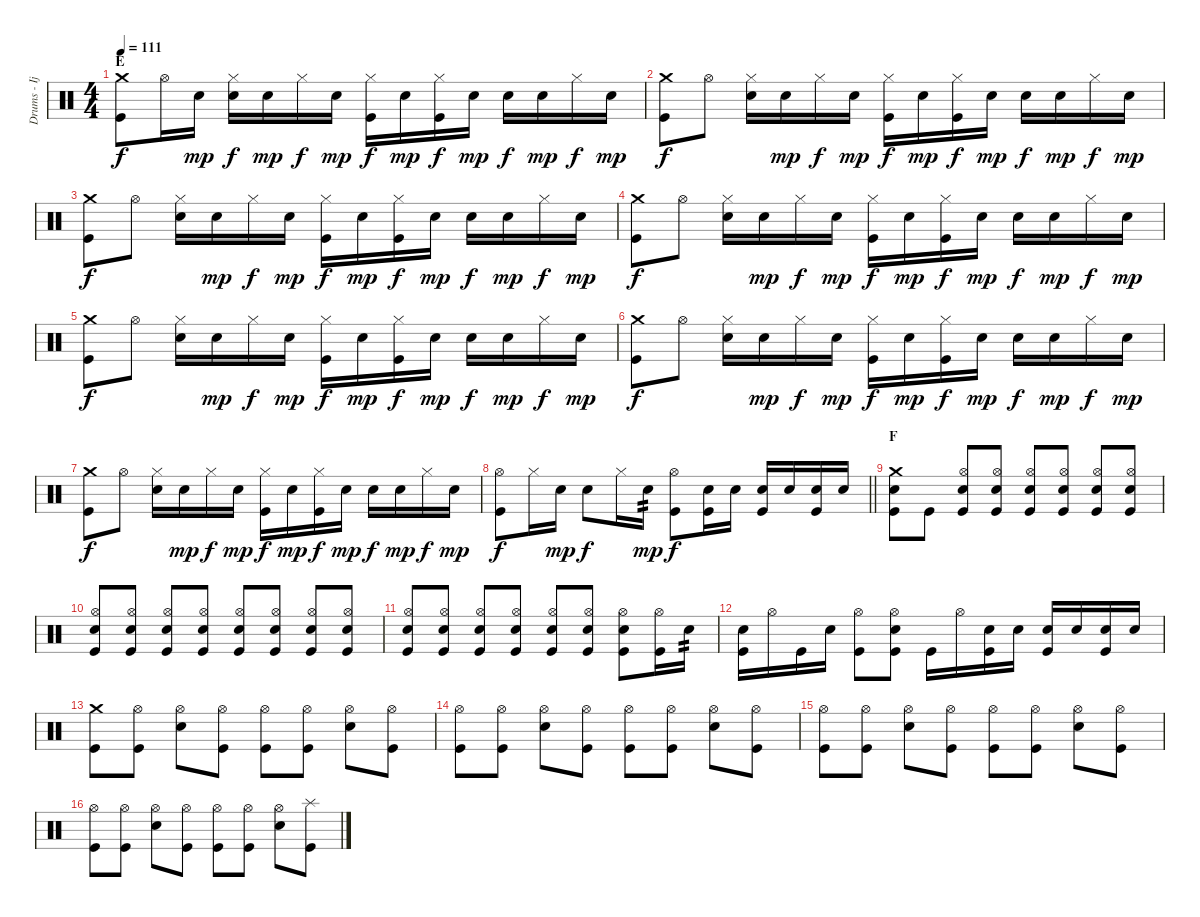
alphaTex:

\track ("Drums - Ijichi" "Drums - Ij") {instrument percussion}
\staff {score}
\articulation defaults
\ts (4 4)
\section ("" "E")
\tempo 111
\clef neutral
\ks c
("Crash medium (hit)" "Kick (hit)").8{dy f} "Hi-Hat (open)".16 "Electric Snare (hit)".16{dy mp} ("Hi-Hat (closed)" "Electric Snare (hit)").16{dy f} "Electric Snare (hit)".16{dy mp} "Hi-Hat (closed)".16{dy f} "Electric Snare (hit)".16{dy mp} ("Hi-Hat (closed)" "Kick (hit)").16{dy f} "Electric Snare (hit)".16{dy mp} ("Hi-Hat (closed)" "Kick (hit)").16{dy f} "Electric Snare (hit)".16{dy mp} "Electric Snare (hit)".16{dy f} "Electric Snare (hit)".16{dy mp} "Hi-Hat (closed)".16{dy f} "Electric Snare (hit)".16{dy mp} |
("Crash medium (hit)" "Kick (hit)").8{dy f} "Hi-Hat (open)".8 ("Hi-Hat (closed)" "Electric Snare (hit)").16 "Electric Snare (hit)".16{dy mp} "Hi-Hat (closed)".16{dy f} "Electric Snare (hit)".16{dy mp} ("Hi-Hat (closed)" "Kick (hit)").16{dy f} "Electric Snare (hit)".16{dy mp} ("Hi-Hat (closed)" "Kick (hit)").16{dy f} "Electric Snare (hit)".16{dy mp} "Electric Snare (hit)".16{dy f} "Electric Snare (hit)".16{dy mp} "Hi-Hat (closed)".16{dy f} "Electric Snare (hit)".16{dy mp} |
("Crash medium (hit)" "Kick (hit)").8{dy f} "Hi-Hat (open)".8 ("Hi-Hat (closed)" "Electric Snare (hit)").16 "Electric Snare (hit)".16{dy mp} "Hi-Hat (closed)".16{dy f} "Electric Snare (hit)".16{dy mp} ("Hi-Hat (closed)" "Kick (hit)").16{dy f} "Electric Snare (hit)".16{dy mp} ("Hi-Hat (closed)" "Kick (hit)").16{dy f} "Electric Snare (hit)".16{dy mp} "Electric Snare (hit)".16{dy f} "Electric Snare (hit)".16{dy mp} "Hi-Hat (closed)".16{dy f} "Electric Snare (hit)".16{dy mp} |
("Crash medium (hit)" "Kick (hit)").8{dy f} "Hi-Hat (open)".8 ("Hi-Hat (closed)" "Electric Snare (hit)").16 "Electric Snare (hit)".16{dy mp} "Hi-Hat (closed)".16{dy f} "Electric Snare (hit)".16{dy mp} ("Hi-Hat (closed)" "Kick (hit)").16{dy f} "Electric Snare (hit)".16{dy mp} ("Hi-Hat (closed)" "Kick (hit)").16{dy f} "Electric Snare (hit)".16{dy mp} "Electric Snare (hit)".16{dy f} "Electric Snare (hit)".16{dy mp} "Hi-Hat (closed)".16{dy f} "Electric Snare (hit)".16{dy mp} |
("Crash medium (hit)" "Kick (hit)").8{dy f} "Hi-Hat (open)".8 ("Hi-Hat (closed)" "Electric Snare (hit)").16 "Electric Snare (hit)".16{dy mp} "Hi-Hat (closed)".16{dy f} "Electric Snare (hit)".16{dy mp} ("Hi-Hat (closed)" "Kick (hit)").16{dy f} "Electric Snare (hit)".16{dy mp} ("Hi-Hat (closed)" "Kick (hit)").16{dy f} "Electric Snare (hit)".16{dy mp} "Electric Snare (hit)".16{dy f} "Electric Snare (hit)".16{dy mp} "Hi-Hat (closed)".16{dy f} "Electric Snare (hit)".16{dy mp} |
("Crash medium (hit)" "Kick (hit)").8{dy f} "Hi-Hat (open)".8 ("Hi-Hat (closed)" "Electric Snare (hit)").16 "Electric Snare (hit)".16{dy mp} "Hi-Hat (closed)".16{dy f} "Electric Snare (hit)".16{dy mp} ("Hi-Hat (closed)" "Kick (hit)").16{dy f} "Electric Snare (hit)".16{dy mp} ("Hi-Hat (closed)" "Kick (hit)").16{dy f} "Electric Snare (hit)".16{dy mp} "Electric Snare (hit)".16{dy f} "Electric Snare (hit)".16{dy mp} "Hi-Hat (closed)".16{dy f} "Electric Snare (hit)".16{dy mp} |
("Crash medium (hit)" "Kick (hit)").8{dy f} "Hi-Hat (open)".8 ("Hi-Hat (closed)" "Electric Snare (hit)").16 "Electric Snare (hit)".16{dy mp} "Hi-Hat (closed)".16{dy f} "Electric Snare (hit)".16{dy mp} ("Hi-Hat (closed)" "Kick (hit)").16{dy f} "Electric Snare (hit)".16{dy mp} ("Hi-Hat (closed)" "Kick (hit)").16{dy f} "Electric Snare (hit)".16{dy mp} "Electric Snare (hit)".16{dy f} "Electric Snare (hit)".16{dy mp} "Hi-Hat (closed)".16{dy f} "Electric Snare (hit)".16{dy mp} |
\barLineRight lightlight
("Hi-Hat (open)" "Kick (hit)").8{dy f} "Hi-Hat (closed)".16 "Electric Snare (hit)".16{dy mp} "Electric Snare (hit)".8{dy f} "Hi-Hat (closed)".16 "Electric Snare (hit)".16{tp 2 dy mp} ("Hi-Hat (open)" "Kick (hit)").8{dy f} ("Electric Snare (hit)" "Kick (hit)").16 "Electric Snare (hit)".16 ("Electric Snare (hit)" "Kick (hit)").16 "Electric Snare (hit)".16 ("Electric Snare (hit)" "Kick (hit)").16 "Electric Snare (hit)".16 |
\section ("" "F")
("Crash medium (hit)" "Electric Snare (hit)" "Kick (hit)").8 "Kick (hit)".8 ("Hi-Hat (open)" "Electric Snare (hit)" "Kick (hit)").8 ("Hi-Hat (open)" "Electric Snare (hit)" "Kick (hit)").8 ("Hi-Hat (open)" "Electric Snare (hit)" "Kick (hit)").8 ("Hi-Hat (open)" "Electric Snare (hit)" "Kick (hit)").8 ("Hi-Hat (open)" "Electric Snare (hit)" "Kick (hit)").8 ("Hi-Hat (open)" "Electric Snare (hit)" "Kick (hit)").8 |
("Hi-Hat (open)" "Electric Snare (hit)" "Kick (hit)").8 ("Hi-Hat (open)" "Electric Snare (hit)" "Kick (hit)").8 ("Hi-Hat (open)" "Electric Snare (hit)" "Kick (hit)").8 ("Hi-Hat (open)" "Electric Snare (hit)" "Kick (hit)").8 ("Hi-Hat (open)" "Electric Snare (hit)" "Kick (hit)").8 ("Hi-Hat (open)" "Electric Snare (hit)" "Kick (hit)").8 ("Hi-Hat (open)" "Electric Snare (hit)" "Kick (hit)").8 ("Hi-Hat (open)" "Electric Snare (hit)" "Kick (hit)").8 |
("Hi-Hat (open)" "Electric Snare (hit)" "Kick (hit)").8 ("Hi-Hat (open)" "Electric Snare (hit)" "Kick (hit)").8 ("Hi-Hat (open)" "Electric Snare (hit)" "Kick (hit)").8 ("Hi-Hat (open)" "Electric Snare (hit)" "Kick (hit)").8 ("Hi-Hat (open)" "Electric Snare (hit)" "Kick (hit)").8 ("Hi-Hat (open)" "Electric Snare (hit)" "Kick (hit)").8 ("Hi-Hat (open)" "Electric Snare (hit)" "Kick (hit)").8 ("Hi-Hat (open)" "Kick (hit)").16 "Electric Snare (hit)".16{tp 2} |
("Electric Snare (hit)" "Kick (hit)").16 "Hi-Hat (open)".16 "Kick (hit)".16 "Electric Snare (hit)".16 ("Hi-Hat (open)" "Kick (hit)").8 ("Hi-Hat (open)" "Electric Snare (hit)" "Kick (hit)").8 "Kick (hit)".16 "Hi-Hat (open)".16 ("Electric Snare (hit)" "Kick (hit)").16 "Electric Snare (hit)".16 ("Electric Snare (hit)" "Kick (hit)").16 "Electric Snare (hit)".16 ("Electric Snare (hit)" "Kick (hit)").16 "Electric Snare (hit)".16 |
("Crash medium (hit)" "Kick (hit)").8 ("Hi-Hat (open)" "Kick (hit)").8 ("Hi-Hat (open)" "Electric Snare (hit)").8 ("Hi-Hat (open)" "Kick (hit)").8 ("Hi-Hat (open)" "Kick (hit)").8 ("Hi-Hat (open)" "Kick (hit)").8 ("Hi-Hat (open)" "Electric Snare (hit)").8 ("Hi-Hat (open)" "Kick (hit)").8 |
("Hi-Hat (open)" "Kick (hit)").8 ("Hi-Hat (open)" "Kick (hit)").8 ("Hi-Hat (open)" "Electric Snare (hit)").8 ("Hi-Hat (open)" "Kick (hit)").8 ("Hi-Hat (open)" "Kick (hit)").8 ("Hi-Hat (open)" "Kick (hit)").8 ("Hi-Hat (open)" "Electric Snare (hit)").8 ("Hi-Hat (open)" "Kick (hit)").8 |
("Hi-Hat (open)" "Kick (hit)").8 ("Hi-Hat (open)" "Kick (hit)").8 ("Hi-Hat (open)" "Electric Snare (hit)").8 ("Hi-Hat (open)" "Kick (hit)").8 ("Hi-Hat (open)" "Kick (hit)").8 ("Hi-Hat (open)" "Kick (hit)").8 ("Hi-Hat (open)" "Electric Snare (hit)").8 ("Hi-Hat (open)" "Kick (hit)").8 |
("Hi-Hat (open)" "Kick (hit)").8 ("Hi-Hat (open)" "Kick (hit)").8 ("Hi-Hat (open)" "Electric Snare (hit)").8 ("Hi-Hat (open)" "Kick (hit)").8 ("Hi-Hat (open)" "Kick (hit)").8 ("Hi-Hat (open)" "Kick (hit)").8 ("Hi-Hat (open)" "Electric Snare (hit)").8 ("Splash (hit)" "Kick (hit)").8
